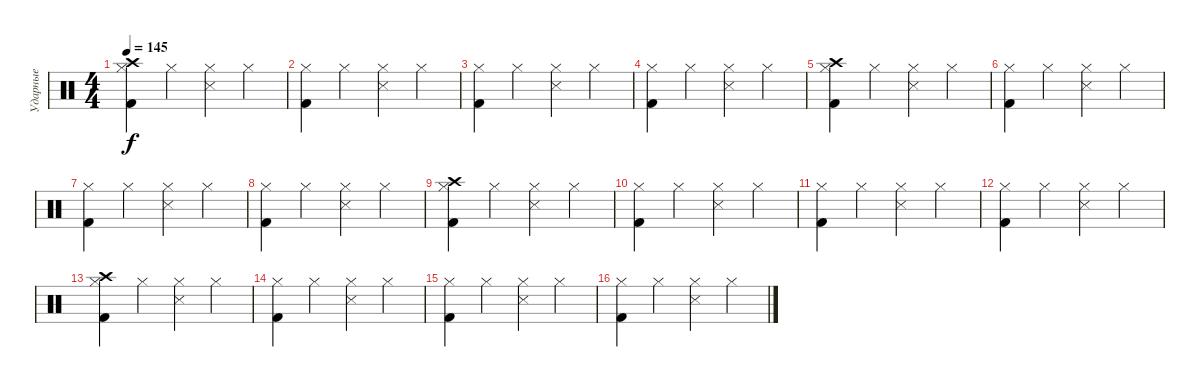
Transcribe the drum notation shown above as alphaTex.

\track ("Ударные" "Ударные") {instrument percussion}
\staff {score}
\articulation defaults
\ts (4 4)
\tempo 145
\clef neutral
\ks c
("Crash high (hit)" "Hi-Hat (closed)" "Kick (hit) 2").4{dy f} "Hi-Hat (closed)".4 ("Snare (side stick) 3" "Hi-Hat (closed)").4 "Hi-Hat (closed)".4 |
("Kick (hit) 2" "Hi-Hat (closed)").4 "Hi-Hat (closed)".4 ("Snare (side stick) 3" "Hi-Hat (closed)").4 "Hi-Hat (closed)".4 |
("Kick (hit) 2" "Hi-Hat (closed)").4 "Hi-Hat (closed)".4 ("Snare (side stick) 3" "Hi-Hat (closed)").4 "Hi-Hat (closed)".4 |
("Hi-Hat (closed)" "Kick (hit) 2").4 "Hi-Hat (closed)".4 ("Snare (side stick) 3" "Hi-Hat (closed)").4 "Hi-Hat (closed)".4 |
("Kick (hit) 2" "Crash high (hit)" "Hi-Hat (closed)").4 "Hi-Hat (closed)".4 ("Snare (side stick) 3" "Hi-Hat (closed)").4 "Hi-Hat (closed)".4 |
("Hi-Hat (closed)" "Kick (hit) 2").4 "Hi-Hat (closed)".4 ("Hi-Hat (closed)" "Snare (side stick) 3").4 "Hi-Hat (closed)".4 |
("Hi-Hat (closed)" "Kick (hit) 2").4 "Hi-Hat (closed)".4 ("Hi-Hat (closed)" "Snare (side stick) 3").4 "Hi-Hat (closed)".4 |
("Hi-Hat (closed)" "Kick (hit) 2").4 "Hi-Hat (closed)".4 ("Hi-Hat (closed)" "Snare (side stick) 3").4 "Hi-Hat (closed)".4 |
("Hi-Hat (closed)" "Crash high (hit)" "Kick (hit) 2").4 "Hi-Hat (closed)".4 ("Snare (side stick) 3" "Hi-Hat (closed)").4 "Hi-Hat (closed)".4 |
("Kick (hit) 2" "Hi-Hat (closed)").4 "Hi-Hat (closed)".4 ("Snare (side stick) 3" "Hi-Hat (closed)").4 "Hi-Hat (closed)".4 |
("Kick (hit) 2" "Hi-Hat (closed)").4 "Hi-Hat (closed)".4 ("Snare (side stick) 3" "Hi-Hat (closed)").4 "Hi-Hat (closed)".4 |
("Hi-Hat (closed)" "Kick (hit) 2").4 "Hi-Hat (closed)".4 ("Hi-Hat (closed)" "Snare (side stick) 3").4 "Hi-Hat (closed)".4 |
("Crash high (hit)" "Kick (hit) 2" "Hi-Hat (closed)").4 "Hi-Hat (closed)".4 ("Hi-Hat (closed)" "Snare (side stick) 3").4 "Hi-Hat (closed)".4 |
("Kick (hit) 2" "Hi-Hat (closed)").4 "Hi-Hat (closed)".4 ("Hi-Hat (closed)" "Snare (side stick) 3").4 "Hi-Hat (closed)".4 |
("Kick (hit) 2" "Hi-Hat (closed)").4 "Hi-Hat (closed)".4 ("Snare (side stick) 3" "Hi-Hat (closed)").4 "Hi-Hat (closed)".4 |
("Hi-Hat (closed)" "Kick (hit) 2").4 "Hi-Hat (closed)".4 ("Hi-Hat (closed)" "Snare (side stick) 3").4 "Hi-Hat (closed)".4
